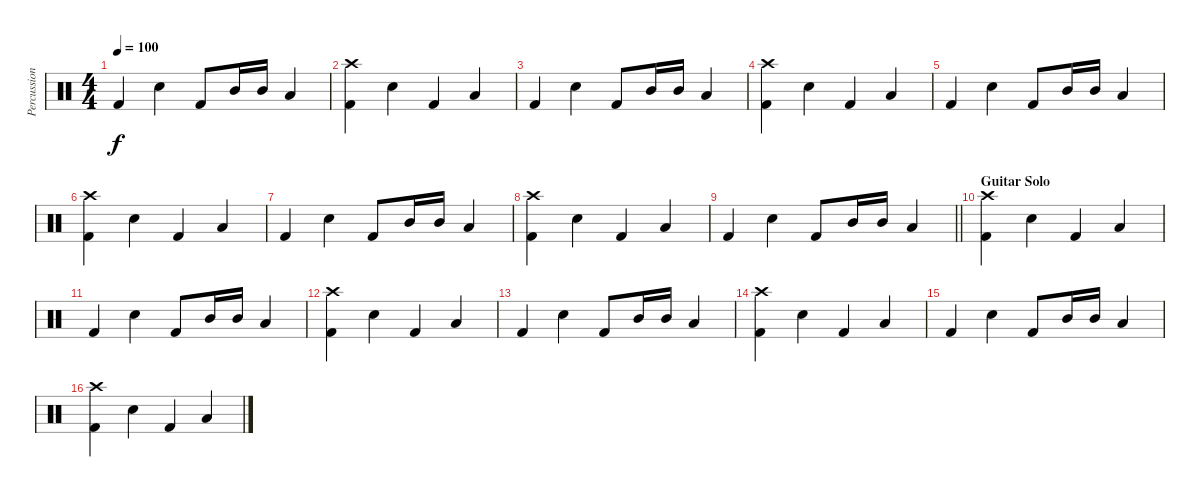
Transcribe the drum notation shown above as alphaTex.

\track ("Percussion" "Percussion") {instrument percussion}
\staff {score}
\articulation defaults
\ts (4 4)
\tempo 100
\clef neutral
\ks c "Kick (hit) 2".4{dy f} "Electric Snare (hit)".4 "Kick (hit) 2".8 "Mid Tom (hit)".16 "Mid Tom (hit)".16 "Low Tom (hit)".4
|
("Crash high (hit)" "Kick (hit) 2").4 "Electric Snare (hit)".4 "Kick (hit) 2".4 "Low Tom (hit)".4 |
"Kick (hit) 2".4 "Electric Snare (hit)".4 "Kick (hit) 2".8 "Mid Tom (hit)".16 "Mid Tom (hit)".16 "Low Tom (hit)".4 |
("Crash high (hit)" "Kick (hit) 2").4 "Electric Snare (hit)".4 "Kick (hit) 2".4 "Low Tom (hit)".4 |
"Kick (hit) 2".4 "Electric Snare (hit)".4 "Kick (hit) 2".8 "Mid Tom (hit)".16 "Mid Tom (hit)".16 "Low Tom (hit)".4 |
("Crash high (hit)" "Kick (hit) 2").4 "Electric Snare (hit)".4 "Kick (hit) 2".4 "Low Tom (hit)".4 |
"Kick (hit) 2".4 "Electric Snare (hit)".4 "Kick (hit) 2".8 "Mid Tom (hit)".16 "Mid Tom (hit)".16 "Low Tom (hit)".4 |
("Crash high (hit)" "Kick (hit) 2").4 "Electric Snare (hit)".4 "Kick (hit) 2".4 "Low Tom (hit)".4 |
\barLineRight lightlight "Kick (hit) 2".4 "Electric Snare (hit)".4 "Kick (hit) 2".8 "Mid Tom (hit)".16 "Mid Tom (hit)".16 "Low Tom (hit)".4
|
\section ("" "Guitar Solo")
("Crash high (hit)" "Kick (hit) 2").4{volume 16} "Electric Snare (hit)".4 "Kick (hit) 2".4 "Low Tom (hit)".4 |
"Kick (hit) 2".4 "Electric Snare (hit)".4 "Kick (hit) 2".8 "Mid Tom (hit)".16 "Mid Tom (hit)".16 "Low Tom (hit)".4 |
("Crash high (hit)" "Kick (hit) 2").4 "Electric Snare (hit)".4 "Kick (hit) 2".4 "Low Tom (hit)".4 |
"Kick (hit) 2".4 "Electric Snare (hit)".4 "Kick (hit) 2".8 "Mid Tom (hit)".16 "Mid Tom (hit)".16 "Low Tom (hit)".4 |
("Crash high (hit)" "Kick (hit) 2").4 "Electric Snare (hit)".4 "Kick (hit) 2".4 "Low Tom (hit)".4 |
"Kick (hit) 2".4 "Electric Snare (hit)".4 "Kick (hit) 2".8 "Mid Tom (hit)".16 "Mid Tom (hit)".16 "Low Tom (hit)".4 |
("Crash high (hit)" "Kick (hit) 2").4 "Electric Snare (hit)".4 "Kick (hit) 2".4 "Low Tom (hit)".4
